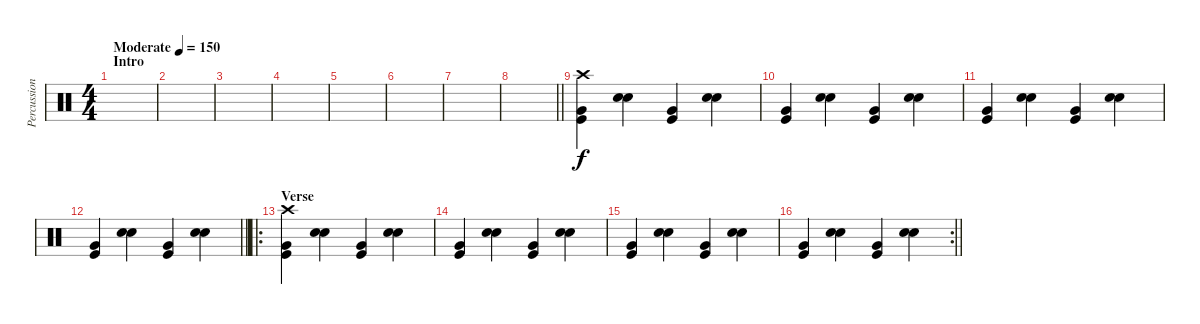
\track ("Percussion" "Percussion") {instrument percussion}
\staff {score}
\articulation defaults
\ts (4 4)
\section ("" "Intro")
\tempo (150 "Moderate")
\clef neutral
\ks c
|
|
|
|
|
|
|
\barLineRight lightlight
|
("Kick (hit)" "Very Low Tom (hit)" "Crash high (hit)").4 ("Snare (hit) 2" "Snare (hit) 2").4 ("Kick (hit)" "Very Low Tom (hit)").4 ("Snare (hit) 2" "Snare (hit) 2").4 |
("Kick (hit)" "Very Low Tom (hit)").4 ("Snare (hit) 2" "Snare (hit) 2").4 ("Kick (hit)" "Very Low Tom (hit)").4 ("Snare (hit) 2" "Snare (hit) 2").4 |
("Kick (hit)" "Very Low Tom (hit)").4 ("Snare (hit) 2" "Snare (hit) 2").4 ("Kick (hit)" "Very Low Tom (hit)").4 ("Snare (hit) 2" "Snare (hit) 2").4 |
\barLineRight lightlight
("Kick (hit)" "Very Low Tom (hit)").4 ("Snare (hit) 2" "Snare (hit) 2").4 ("Kick (hit)" "Very Low Tom (hit)").4 ("Snare (hit) 2" "Snare (hit) 2").4 |
\ro
\section ("" "Verse")
("Kick (hit)" "Very Low Tom (hit)" "Crash high (hit)").4 ("Snare (hit) 2" "Snare (hit) 2").4 ("Kick (hit)" "Very Low Tom (hit)").4 ("Snare (hit) 2" "Snare (hit) 2").4 |
("Kick (hit)" "Very Low Tom (hit)").4 ("Snare (hit) 2" "Snare (hit) 2").4 ("Kick (hit)" "Very Low Tom (hit)").4 ("Snare (hit) 2" "Snare (hit) 2").4 |
("Kick (hit)" "Very Low Tom (hit)").4 ("Snare (hit) 2" "Snare (hit) 2").4 ("Kick (hit)" "Very Low Tom (hit)").4 ("Snare (hit) 2" "Snare (hit) 2").4 |
\rc 2
\barLineRight lightlight
("Kick (hit)" "Very Low Tom (hit)").4 ("Snare (hit) 2" "Snare (hit) 2").4 ("Kick (hit)" "Very Low Tom (hit)").4 ("Snare (hit) 2" "Snare (hit) 2").4
